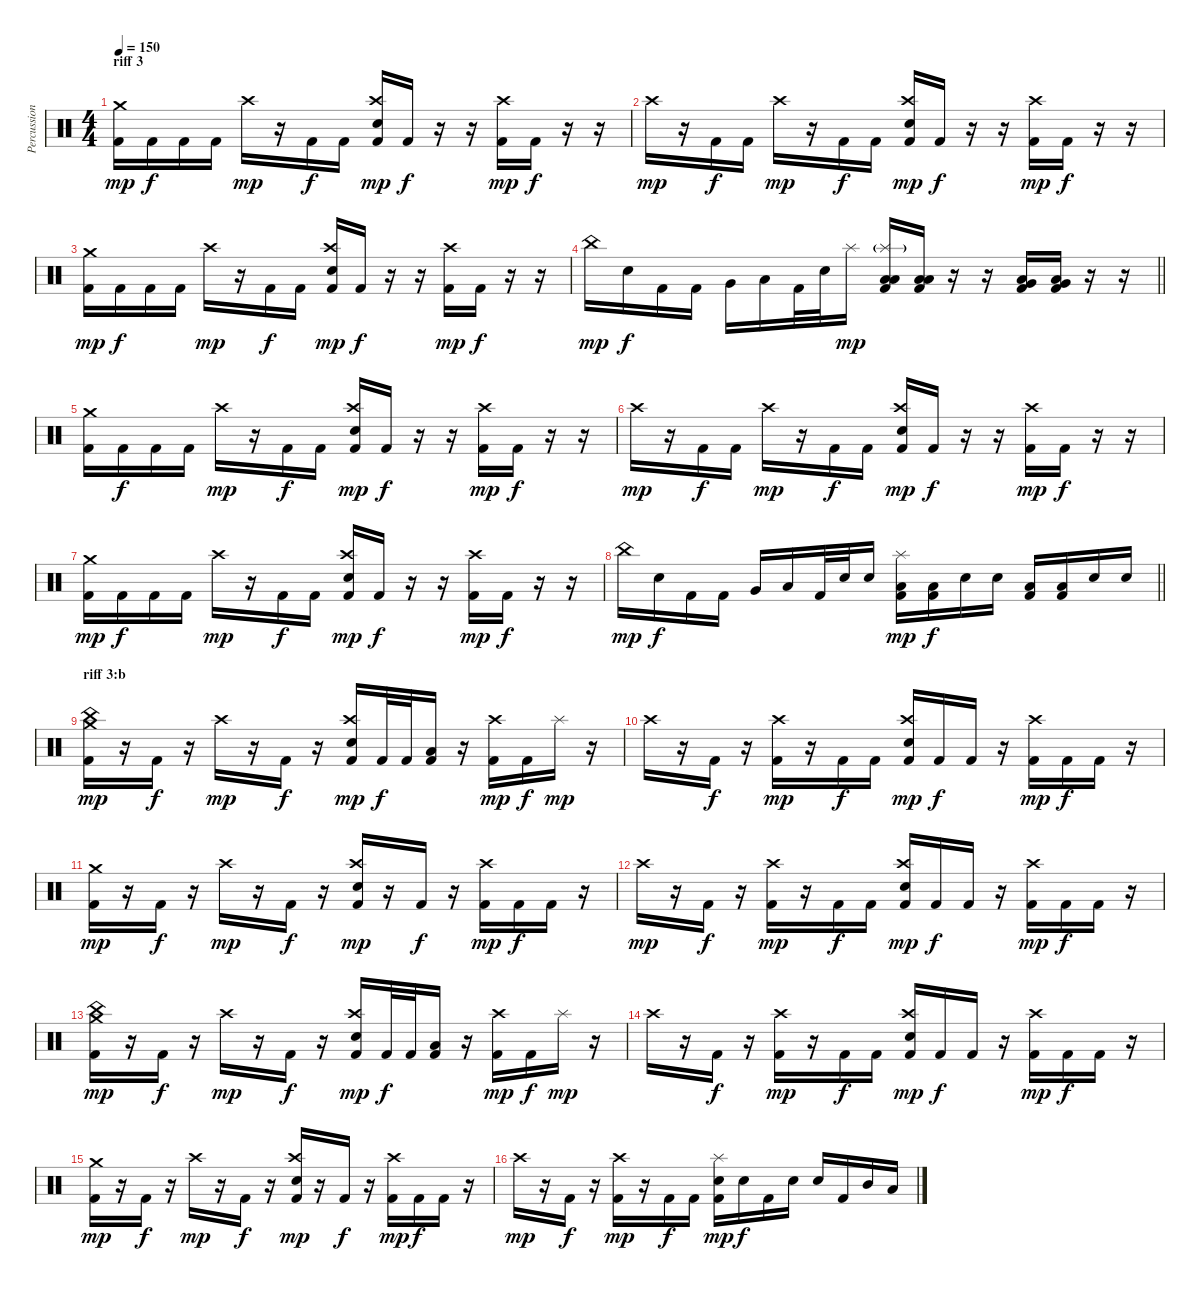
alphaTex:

\track ("Percussion" "Percussion") {instrument percussion}
\staff {score}
\articulation defaults
\ts (4 4)
\section ("" "riff 3")
\tempo 150
\clef neutral
\ks c
("Crash medium (hit)" "Kick (hit) 2").16{dy mp} "Kick (hit) 2".16{dy f} "Kick (hit) 2".16 "Kick (hit) 2".16 "Crash high (hit)".16{dy mp} r.16 "Kick (hit) 2".16{dy f} "Kick (hit) 2".16 ("Crash high (hit)" "Electric Snare (hit)" "Kick (hit) 2").16{dy mp} "Kick (hit) 2".16{dy f} r.16 r.16 ("Crash high (hit)" "Kick (hit) 2").16{dy mp} "Kick (hit) 2".16{dy f} r.16 r.16 |
"Crash high (hit)".16{dy mp} r.16 "Kick (hit) 2".16{dy f} "Kick (hit) 2".16 "Crash high (hit)".16{dy mp} r.16 "Kick (hit) 2".16{dy f} "Kick (hit) 2".16 ("Crash high (hit)" "Electric Snare (hit)" "Kick (hit) 2").16{dy mp} "Kick (hit) 2".16{dy f} r.16 r.16 ("Crash high (hit)" "Kick (hit) 2").16{dy mp} "Kick (hit) 2".16{dy f} r.16 r.16 |
("Crash medium (hit)" "Kick (hit) 2").16{dy mp} "Kick (hit) 2".16{dy f} "Kick (hit) 2".16 "Kick (hit) 2".16 "Crash high (hit)".16{dy mp} r.16 "Kick (hit) 2".16{dy f} "Kick (hit) 2".16 ("Crash high (hit)" "Electric Snare (hit)" "Kick (hit) 2").16{dy mp} "Kick (hit) 2".16{dy f} r.16 r.16 ("Crash high (hit)" "Kick (hit) 2").16{dy mp} "Kick (hit) 2".16{dy f} r.16 r.16 |
\barLineRight lightlight "China (hit)".16{dy mp} "Electric Snare (hit)".16{dy f} "Kick (hit) 2".16 "Kick (hit) 2".16 "Very Low Tom (hit)".16 "Low Floor Tom (hit)".16 "Kick (hit) 2".32 "Electric Snare (hit)".32 "Splash (hit)".16{dy mp}
("Splash (hit)"{g} "Low Tom (hit)" "Low Floor Tom (hit)" "Kick (hit) 2").16 ("Low Tom (hit)" "Low Floor Tom (hit)" "Kick (hit) 2").16 r.16 r.16 ("Very Low Tom (hit)" "Low Floor Tom (hit)" "Kick (hit) 2").16 ("Very Low Tom (hit)" "Low Floor Tom (hit)" "Kick (hit) 2").16 r.16 r.16 |
("Crash medium (hit)" "Kick (hit) 2").16 "Kick (hit) 2".16{dy f} "Kick (hit) 2".16 "Kick (hit) 2".16 "Crash high (hit)".16{dy mp} r.16 "Kick (hit) 2".16{dy f} "Kick (hit) 2".16 ("Crash high (hit)" "Electric Snare (hit)" "Kick (hit) 2").16{dy mp} "Kick (hit) 2".16{dy f} r.16 r.16 ("Crash high (hit)" "Kick (hit) 2").16{dy mp} "Kick (hit) 2".16{dy f} r.16 r.16 |
"Crash high (hit)".16{dy mp} r.16 "Kick (hit) 2".16{dy f} "Kick (hit) 2".16 "Crash high (hit)".16{dy mp} r.16 "Kick (hit) 2".16{dy f} "Kick (hit) 2".16 ("Crash high (hit)" "Electric Snare (hit)" "Kick (hit) 2").16{dy mp} "Kick (hit) 2".16{dy f} r.16 r.16 ("Crash high (hit)" "Kick (hit) 2").16{dy mp} "Kick (hit) 2".16{dy f} r.16 r.16 |
("Crash medium (hit)" "Kick (hit) 2").16{dy mp} "Kick (hit) 2".16{dy f} "Kick (hit) 2".16 "Kick (hit) 2".16 "Crash high (hit)".16{dy mp} r.16 "Kick (hit) 2".16{dy f} "Kick (hit) 2".16 ("Crash high (hit)" "Electric Snare (hit)" "Kick (hit) 2").16{dy mp} "Kick (hit) 2".16{dy f} r.16 r.16 ("Crash high (hit)" "Kick (hit) 2").16{dy mp} "Kick (hit) 2".16{dy f} r.16 r.16 |
\barLineRight lightlight "China (hit)".16{dy mp} "Electric Snare (hit)".16{dy f} "Kick (hit) 2".16 "Kick (hit) 2".16 "Very Low Tom (hit)".16 "Low Floor Tom (hit)".16 "Kick (hit) 2".32 "Electric Snare (hit)".32 "Electric Snare (hit)".16
("Splash (hit)" "Low Floor Tom (hit)" "Kick (hit) 2").16{dy mp} ("Low Floor Tom (hit)" "Kick (hit) 2").16{dy f} "Electric Snare (hit)".16 "Electric Snare (hit)".16 ("Low Floor Tom (hit)" "Kick (hit) 2").16 ("Low Floor Tom (hit)" "Kick (hit) 2").16 "Electric Snare (hit)".16 "Electric Snare (hit)".16 |
\section ("" "riff 3:b")
("Crash medium (hit)" "China (hit)" "Kick (hit) 2").16{dy mp} r.16 "Kick (hit) 2".16{dy f} r.16 "Crash high (hit)".16{dy mp} r.16 "Kick (hit) 2".16{dy f} r.16 ("Crash high (hit)" "Electric Snare (hit)" "Kick (hit) 2").16{dy mp} "Kick (hit) 2".32{dy f} "Kick (hit) 2".32 ("Low Floor Tom (hit)" "Kick (hit) 2").16 r.16 ("Crash high (hit)" "Kick (hit) 2").16{dy mp} "Kick (hit) 2".16{dy f} "Splash (hit)".16{dy mp} r.16 |
"Crash high (hit)".16 r.16 "Kick (hit) 2".16{dy f} r.16 ("Crash high (hit)" "Kick (hit) 2").16{dy mp} r.16 "Kick (hit) 2".16{dy f} "Kick (hit) 2".16 ("Crash high (hit)" "Electric Snare (hit)" "Kick (hit) 2").16{dy mp} "Kick (hit) 2".16{dy f} "Kick (hit) 2".16 r.16 ("Crash high (hit)" "Kick (hit) 2").16{dy mp} "Kick (hit) 2".16{dy f} "Kick (hit) 2".16 r.16 |
("Crash medium (hit)" "Kick (hit) 2").16{dy mp} r.16 "Kick (hit) 2".16{dy f} r.16 "Crash high (hit)".16{dy mp} r.16 "Kick (hit) 2".16{dy f} r.16 ("Crash high (hit)" "Electric Snare (hit)" "Kick (hit) 2").16{dy mp} r.16 "Kick (hit) 2".16{dy f} r.16 ("Crash high (hit)" "Kick (hit) 2").16{dy mp} "Kick (hit) 2".16{dy f} "Kick (hit) 2".16 r.16 |
"Crash high (hit)".16{dy mp} r.16 "Kick (hit) 2".16{dy f} r.16 ("Crash high (hit)" "Kick (hit) 2").16{dy mp} r.16 "Kick (hit) 2".16{dy f} "Kick (hit) 2".16 ("Crash high (hit)" "Electric Snare (hit)" "Kick (hit) 2").16{dy mp} "Kick (hit) 2".16{dy f} "Kick (hit) 2".16 r.16 ("Crash high (hit)" "Kick (hit) 2").16{dy mp} "Kick (hit) 2".16{dy f} "Kick (hit) 2".16 r.16 |
("Crash medium (hit)" "China (hit)" "Kick (hit) 2").16{dy mp} r.16 "Kick (hit) 2".16{dy f} r.16 "Crash high (hit)".16{dy mp} r.16 "Kick (hit) 2".16{dy f} r.16 ("Crash high (hit)" "Electric Snare (hit)" "Kick (hit) 2").16{dy mp} "Kick (hit) 2".32{dy f} "Kick (hit) 2".32 ("Low Floor Tom (hit)" "Kick (hit) 2").16 r.16 ("Crash high (hit)" "Kick (hit) 2").16{dy mp} "Kick (hit) 2".16{dy f} "Splash (hit)".16{dy mp} r.16 |
"Crash high (hit)".16 r.16 "Kick (hit) 2".16{dy f} r.16 ("Crash high (hit)" "Kick (hit) 2").16{dy mp} r.16 "Kick (hit) 2".16{dy f} "Kick (hit) 2".16 ("Crash high (hit)" "Electric Snare (hit)" "Kick (hit) 2").16{dy mp} "Kick (hit) 2".16{dy f} "Kick (hit) 2".16 r.16 ("Crash high (hit)" "Kick (hit) 2").16{dy mp} "Kick (hit) 2".16{dy f} "Kick (hit) 2".16 r.16 |
("Crash medium (hit)" "Kick (hit) 2").16{dy mp} r.16 "Kick (hit) 2".16{dy f} r.16 "Crash high (hit)".16{dy mp} r.16 "Kick (hit) 2".16{dy f} r.16 ("Crash high (hit)" "Electric Snare (hit)" "Kick (hit) 2").16{dy mp} r.16 "Kick (hit) 2".16{dy f} r.16 ("Crash high (hit)" "Kick (hit) 2").16{dy mp} "Kick (hit) 2".16{dy f} "Kick (hit) 2".16 r.16 |
"Crash high (hit)".16{dy mp} r.16 "Kick (hit) 2".16{dy f} r.16 ("Crash high (hit)" "Kick (hit) 2").16{dy mp} r.16 "Kick (hit) 2".16{dy f} "Kick (hit) 2".16 ("Splash (hit)" "Electric Snare (hit)" "Kick (hit) 2").16{dy mp} "Electric Snare (hit)".16{dy f} "Kick (hit) 2".16 "Electric Snare (hit)".16 "Electric Snare (hit)".16 "Kick (hit) 2".16 "Mid Tom (hit)".16 "Low Tom (hit)".16
